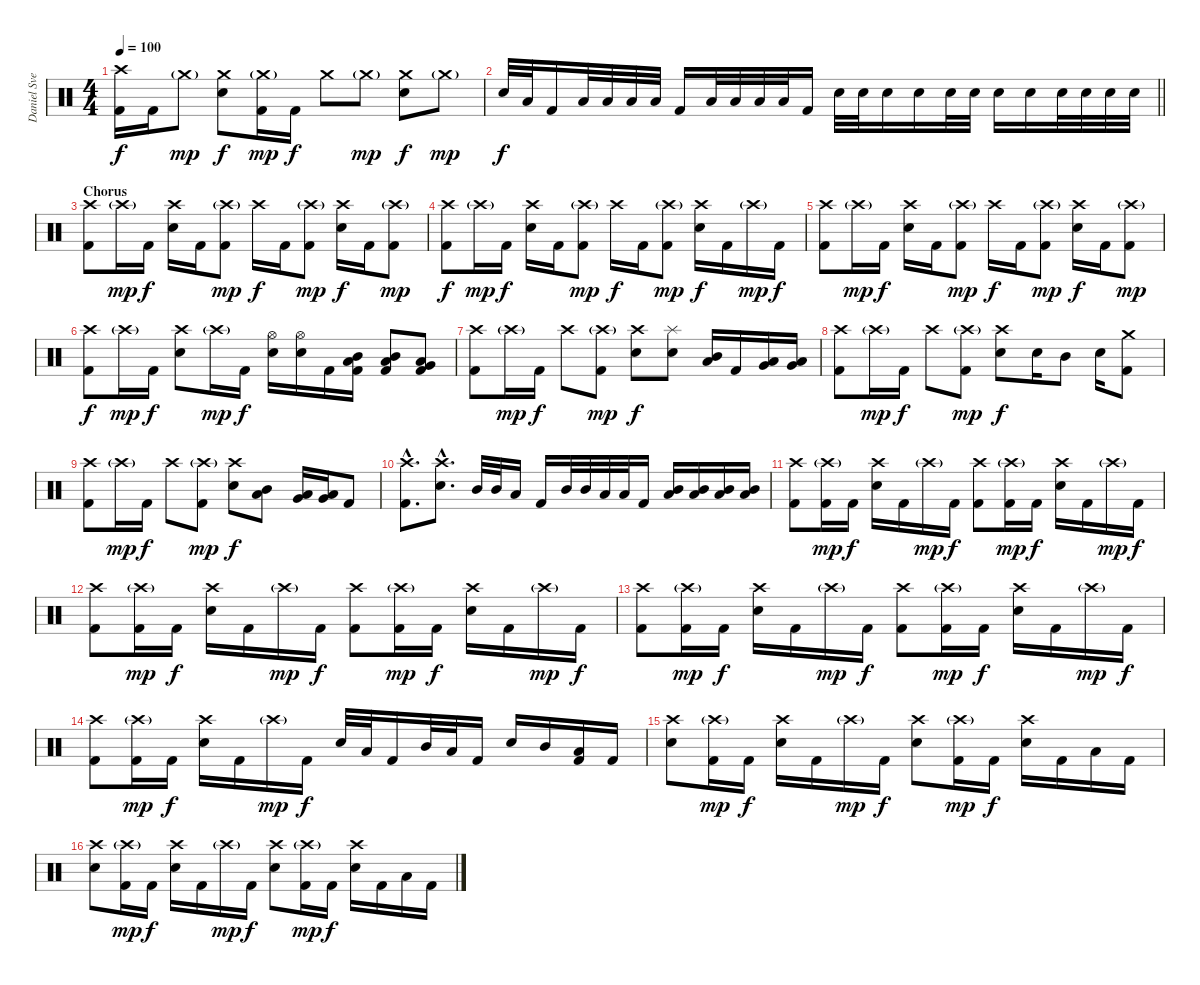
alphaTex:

\track ("Daniel Svensson" "Daniel Sve") {instrument percussion}
\staff {score}
\articulation defaults
\ts (4 4)
\tempo 100
\clef neutral
\ks c
("Crash high (hit)" "Kick (hit) 2").16{dy f} "Kick (hit) 2".16 "Crash medium (hit)"{g}.8{dy mp} ("Crash medium (hit)" "Snare (hit) 2").8{dy f} ("Crash medium (hit)"{g} "Kick (hit) 2").16{dy mp} "Kick (hit) 2".16{dy f} "Crash medium (hit)".8 "Crash medium (hit)"{g}.8{dy mp} ("Crash medium (hit)" "Snare (hit) 2").8{dy f} "Crash medium (hit)"{g}.8{dy mp} |
\barLineRight lightlight "Snare (hit) 2".32{dy f} "Low Tom (hit)".32 "Kick (hit) 2".16 "Low Tom (hit)".32 "Low Tom (hit)".32 "Low Tom (hit)".32 "Low Tom (hit)".32 "Kick (hit) 2".16 "Low Tom (hit)".32 "Low Tom (hit)".32 "Low Tom (hit)".32 "Low Tom (hit)".32 "Kick (hit) 2".16 "Snare (hit) 2".32 "Snare (hit) 2".32 "Snare (hit) 2".16 "Snare (hit) 2".16 "Snare (hit) 2".32 "Snare (hit) 2".32 "Snare (hit) 2".16 "Snare (hit) 2".16 "Snare (hit) 2".32 "Snare (hit) 2".32 "Snare (hit) 2".32 "Snare (hit) 2".32
|
\section ("" "Chorus")
("Crash high (hit)" "Kick (hit) 2").8 "Crash high (hit)"{g}.16{dy mp} "Kick (hit) 2".16{dy f} ("Crash high (hit)" "Snare (hit) 2").16 "Kick (hit) 2".16 ("Crash high (hit)"{g} "Kick (hit) 2").8{dy mp} "Crash high (hit)".16{dy f} "Kick (hit) 2".16 ("Crash high (hit)"{g} "Kick (hit) 2").8{dy mp} ("Crash high (hit)" "Snare (hit) 2").16{dy f} "Kick (hit) 2".16 ("Crash high (hit)"{g} "Kick (hit) 2").8{dy mp} |
("Crash high (hit)" "Kick (hit) 2").8{dy f} "Crash high (hit)"{g}.16{dy mp} "Kick (hit) 2".16{dy f} ("Crash high (hit)" "Snare (hit) 2").16 "Kick (hit) 2".16 ("Crash high (hit)"{g} "Kick (hit) 2").8{dy mp} "Crash high (hit)".16{dy f} "Kick (hit) 2".16 ("Crash high (hit)"{g} "Kick (hit) 2").8{dy mp} ("Crash high (hit)" "Snare (hit) 2").16{dy f} "Kick (hit) 2".16 "Crash high (hit)"{g}.16{dy mp} "Kick (hit) 2".16{dy f} |
("Crash high (hit)" "Kick (hit) 2").8 "Crash high (hit)"{g}.16{dy mp} "Kick (hit) 2".16{dy f} ("Crash high (hit)" "Snare (hit) 2").16 "Kick (hit) 2".16 ("Crash high (hit)"{g} "Kick (hit) 2").8{dy mp} "Crash high (hit)".16{dy f} "Kick (hit) 2".16 ("Crash high (hit)"{g} "Kick (hit) 2").8{dy mp} ("Crash high (hit)" "Snare (hit) 2").16{dy f} "Kick (hit) 2".16 ("Crash high (hit)"{g} "Kick (hit) 2").8{dy mp} |
("Crash high (hit)" "Kick (hit) 2").8{dy f} "Crash high (hit)"{g}.16{dy mp} "Kick (hit) 2".16{dy f} ("Crash high (hit)" "Snare (hit) 2").8 "Crash high (hit)"{g}.16{dy mp} "Kick (hit) 2".16{dy f} ("Hi-Hat (open)" "Snare (hit) 2").16 ("Hi-Hat (open)" "Snare (hit) 2").16 "Kick (hit) 2".16 ("Mid Tom (hit)" "Low Tom (hit)" "Kick (hit) 2").16 ("Mid Tom (hit)" "Low Tom (hit)" "Kick (hit) 2").8 ("Low Tom (hit)" "Very Low Tom (hit)" "Kick (hit) 2").8 |
("Crash high (hit)" "Kick (hit) 2").8 "Crash high (hit)"{g}.16{dy mp} "Kick (hit) 2".16{dy f} "Crash high (hit)".8 ("Crash high (hit)"{g} "Kick (hit) 2").8{dy mp} ("Crash high (hit)" "Snare (hit) 2").8{dy f} ("Splash (hit)" "Snare (hit) 2").8 ("Mid Tom (hit)" "Low Tom (hit)").16 "Kick (hit) 2".16 ("Low Tom (hit)" "Very Low Tom (hit)").16 ("Low Tom (hit)" "Very Low Tom (hit)").16 |
("Crash high (hit)" "Kick (hit) 2").8 "Crash high (hit)"{g}.16{dy mp} "Kick (hit) 2".16{dy f} "Crash high (hit)".8 ("Crash high (hit)"{g} "Kick (hit) 2").8{dy mp} ("Crash high (hit)" "Snare (hit) 2").8{dy f} "Snare (hit) 2".16 "Mid Tom (hit)".8 "Snare (hit) 2".16 ("Crash medium (hit)" "Kick (hit) 2").8 |
("Crash high (hit)" "Kick (hit) 2").8 "Crash high (hit)"{g}.16{dy mp} "Kick (hit) 2".16{dy f} "Crash high (hit)".8 ("Crash high (hit)"{g} "Kick (hit) 2").8{dy mp} ("Crash high (hit)" "Snare (hit) 2").8{dy f} ("Mid Tom (hit)" "Low Tom (hit)").8 ("Low Tom (hit)" "Very Low Tom (hit)").16 ("Low Tom (hit)" "Very Low Tom (hit)").16 "Kick (hit) 2".8 |
("Crash high (hit)"{hac} "Kick (hit) 2"{hac}).8{d} ("Crash high (hit)"{hac} "Snare (hit) 2"{hac}).8{d} "Mid Tom (hit)".32 "Mid Tom (hit)".32 "Low Tom (hit)".16 "Kick (hit) 2".16 "Mid Tom (hit)".32 "Mid Tom (hit)".32 "Low Tom (hit)".32 "Low Tom (hit)".32 "Kick (hit) 2".16 ("Mid Tom (hit)" "Low Tom (hit)").16 ("Mid Tom (hit)" "Low Tom (hit)").16 ("Mid Tom (hit)" "Low Tom (hit)").16 ("Mid Tom (hit)" "Low Tom (hit)").16 |
("Crash high (hit)" "Kick (hit) 2").8 ("Crash high (hit)"{g} "Kick (hit) 2").16{dy mp} "Kick (hit) 2".16{dy f} ("Crash high (hit)" "Snare (hit) 2").16 "Kick (hit) 2".16 "Crash high (hit)"{g}.16{dy mp} "Kick (hit) 2".16{dy f} ("Crash high (hit)" "Kick (hit) 2").8 ("Crash high (hit)"{g} "Kick (hit) 2").16{dy mp} "Kick (hit) 2".16{dy f} ("Crash high (hit)" "Snare (hit) 2").16 "Kick (hit) 2".16 "Crash high (hit)"{g}.16{dy mp} "Kick (hit) 2".16{dy f} |
("Crash high (hit)" "Kick (hit) 2").8 ("Crash high (hit)"{g} "Kick (hit) 2").16{dy mp} "Kick (hit) 2".16{dy f} ("Crash high (hit)" "Snare (hit) 2").16 "Kick (hit) 2".16 "Crash high (hit)"{g}.16{dy mp} "Kick (hit) 2".16{dy f} ("Crash high (hit)" "Kick (hit) 2").8 ("Crash high (hit)"{g} "Kick (hit) 2").16{dy mp} "Kick (hit) 2".16{dy f} ("Crash high (hit)" "Snare (hit) 2").16 "Kick (hit) 2".16 "Crash high (hit)"{g}.16{dy mp} "Kick (hit) 2".16{dy f} |
("Crash high (hit)" "Kick (hit) 2").8 ("Crash high (hit)"{g} "Kick (hit) 2").16{dy mp} "Kick (hit) 2".16{dy f} ("Crash high (hit)" "Snare (hit) 2").16 "Kick (hit) 2".16 "Crash high (hit)"{g}.16{dy mp} "Kick (hit) 2".16{dy f} ("Crash high (hit)" "Kick (hit) 2").8 ("Crash high (hit)"{g} "Kick (hit) 2").16{dy mp} "Kick (hit) 2".16{dy f} ("Crash high (hit)" "Snare (hit) 2").16 "Kick (hit) 2".16 "Crash high (hit)"{g}.16{dy mp} "Kick (hit) 2".16{dy f} |
("Crash high (hit)" "Kick (hit) 2").8 ("Crash high (hit)"{g} "Kick (hit) 2").16{dy mp} "Kick (hit) 2".16{dy f} ("Crash high (hit)" "Snare (hit) 2").16 "Kick (hit) 2".16 "Crash high (hit)"{g}.16{dy mp} "Kick (hit) 2".16{dy f} "Snare (hit) 2".32 "Low Tom (hit)".32 "Kick (hit) 2".16 "Mid Tom (hit)".32 "Low Tom (hit)".32 "Kick (hit) 2".16 "Snare (hit) 2".16 "Mid Tom (hit)".16 ("Low Tom (hit)" "Kick (hit) 2").16 "Kick (hit) 2".16 |
("Crash high (hit)" "Snare (hit) 2").8 ("Crash high (hit)"{g} "Kick (hit) 2").16{dy mp} "Kick (hit) 2".16{dy f} ("Crash high (hit)" "Snare (hit) 2").16 "Kick (hit) 2".16 "Crash high (hit)"{g}.16{dy mp} "Kick (hit) 2".16{dy f} ("Crash high (hit)" "Snare (hit) 2").8 ("Crash high (hit)"{g} "Kick (hit) 2").16{dy mp} "Kick (hit) 2".16{dy f} ("Crash high (hit)" "Snare (hit) 2").16 "Kick (hit) 2".16 "Low Tom (hit)".16 "Kick (hit) 2".16 |
("Crash high (hit)" "Snare (hit) 2").8 ("Crash high (hit)"{g} "Kick (hit) 2").16{dy mp} "Kick (hit) 2".16{dy f} ("Crash high (hit)" "Snare (hit) 2").16 "Kick (hit) 2".16 "Crash high (hit)"{g}.16{dy mp} "Kick (hit) 2".16{dy f} ("Crash high (hit)" "Snare (hit) 2").8 ("Crash high (hit)"{g} "Kick (hit) 2").16{dy mp} "Kick (hit) 2".16{dy f} ("Crash high (hit)" "Snare (hit) 2").16 "Kick (hit) 2".16 "Low Tom (hit)".16 "Kick (hit) 2".16
